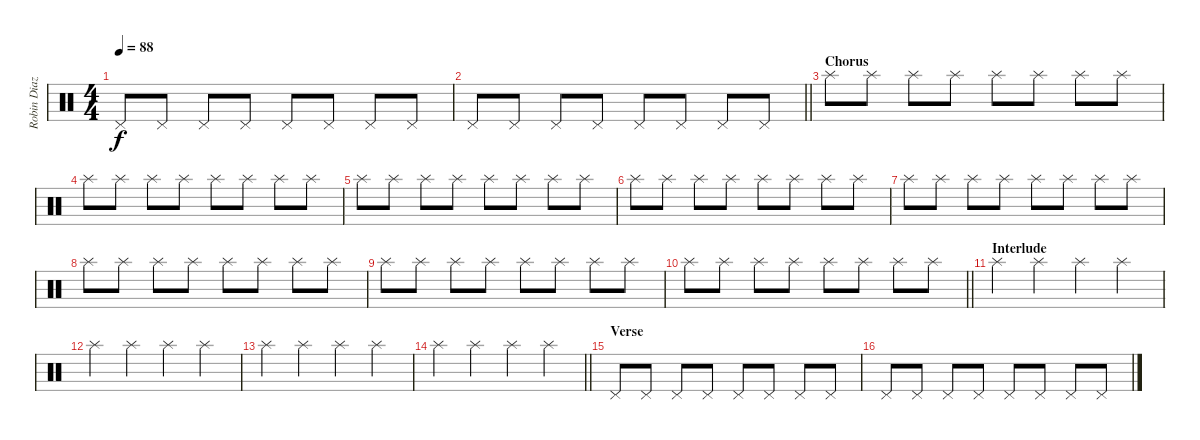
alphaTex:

\track ("Robin Diaz (Drums)" "Robin Diaz") {instrument percussion}
\staff {score}
\articulation defaults
\ts (4 4)
\tempo 88
\clef neutral
\ks c "Pedal Hi-Hat (hit)".8{dy f} "Pedal Hi-Hat (hit)".8 "Pedal Hi-Hat (hit)".8 "Pedal Hi-Hat (hit)".8 "Pedal Hi-Hat (hit)".8 "Pedal Hi-Hat (hit)".8 "Pedal Hi-Hat (hit)".8 "Pedal Hi-Hat (hit)".8
|
\barLineRight lightlight "Pedal Hi-Hat (hit)".8 "Pedal Hi-Hat (hit)".8 "Pedal Hi-Hat (hit)".8 "Pedal Hi-Hat (hit)".8 "Pedal Hi-Hat (hit)".8 "Pedal Hi-Hat (hit)".8 "Pedal Hi-Hat (hit)".8 "Pedal Hi-Hat (hit)".8
|
\section ("" "Chorus")
"Splash (hit)".8 "Splash (hit)".8 "Splash (hit)".8 "Splash (hit)".8 "Splash (hit)".8 "Splash (hit)".8 "Splash (hit)".8 "Splash (hit)".8 |
"Splash (hit)".8 "Splash (hit)".8 "Splash (hit)".8 "Splash (hit)".8 "Splash (hit)".8 "Splash (hit)".8 "Splash (hit)".8 "Splash (hit)".8 |
"Splash (hit)".8 "Splash (hit)".8 "Splash (hit)".8 "Splash (hit)".8 "Splash (hit)".8 "Splash (hit)".8 "Splash (hit)".8 "Splash (hit)".8 |
"Splash (hit)".8 "Splash (hit)".8 "Splash (hit)".8 "Splash (hit)".8 "Splash (hit)".8 "Splash (hit)".8 "Splash (hit)".8 "Splash (hit)".8 |
"Splash (hit)".8 "Splash (hit)".8 "Splash (hit)".8 "Splash (hit)".8 "Splash (hit)".8 "Splash (hit)".8 "Splash (hit)".8 "Splash (hit)".8 |
"Splash (hit)".8 "Splash (hit)".8 "Splash (hit)".8 "Splash (hit)".8 "Splash (hit)".8 "Splash (hit)".8 "Splash (hit)".8 "Splash (hit)".8 |
"Splash (hit)".8 "Splash (hit)".8 "Splash (hit)".8 "Splash (hit)".8 "Splash (hit)".8 "Splash (hit)".8 "Splash (hit)".8 "Splash (hit)".8 |
\barLineRight lightlight "Splash (hit)".8 "Splash (hit)".8 "Splash (hit)".8 "Splash (hit)".8 "Splash (hit)".8 "Splash (hit)".8 "Splash (hit)".8 "Splash (hit)".8
|
\section ("" "Interlude")
"Splash (hit)".4 "Splash (hit)".4 "Splash (hit)".4 "Splash (hit)".4 |
"Splash (hit)".4 "Splash (hit)".4 "Splash (hit)".4 "Splash (hit)".4 |
"Splash (hit)".4 "Splash (hit)".4 "Splash (hit)".4 "Splash (hit)".4 |
\barLineRight lightlight "Splash (hit)".4 "Splash (hit)".4 "Splash (hit)".4 "Splash (hit)".4
|
\section ("" "Verse")
"Pedal Hi-Hat (hit)".8 "Pedal Hi-Hat (hit)".8 "Pedal Hi-Hat (hit)".8 "Pedal Hi-Hat (hit)".8 "Pedal Hi-Hat (hit)".8 "Pedal Hi-Hat (hit)".8 "Pedal Hi-Hat (hit)".8 "Pedal Hi-Hat (hit)".8 |
"Pedal Hi-Hat (hit)".8 "Pedal Hi-Hat (hit)".8 "Pedal Hi-Hat (hit)".8 "Pedal Hi-Hat (hit)".8 "Pedal Hi-Hat (hit)".8 "Pedal Hi-Hat (hit)".8 "Pedal Hi-Hat (hit)".8 "Pedal Hi-Hat (hit)".8
